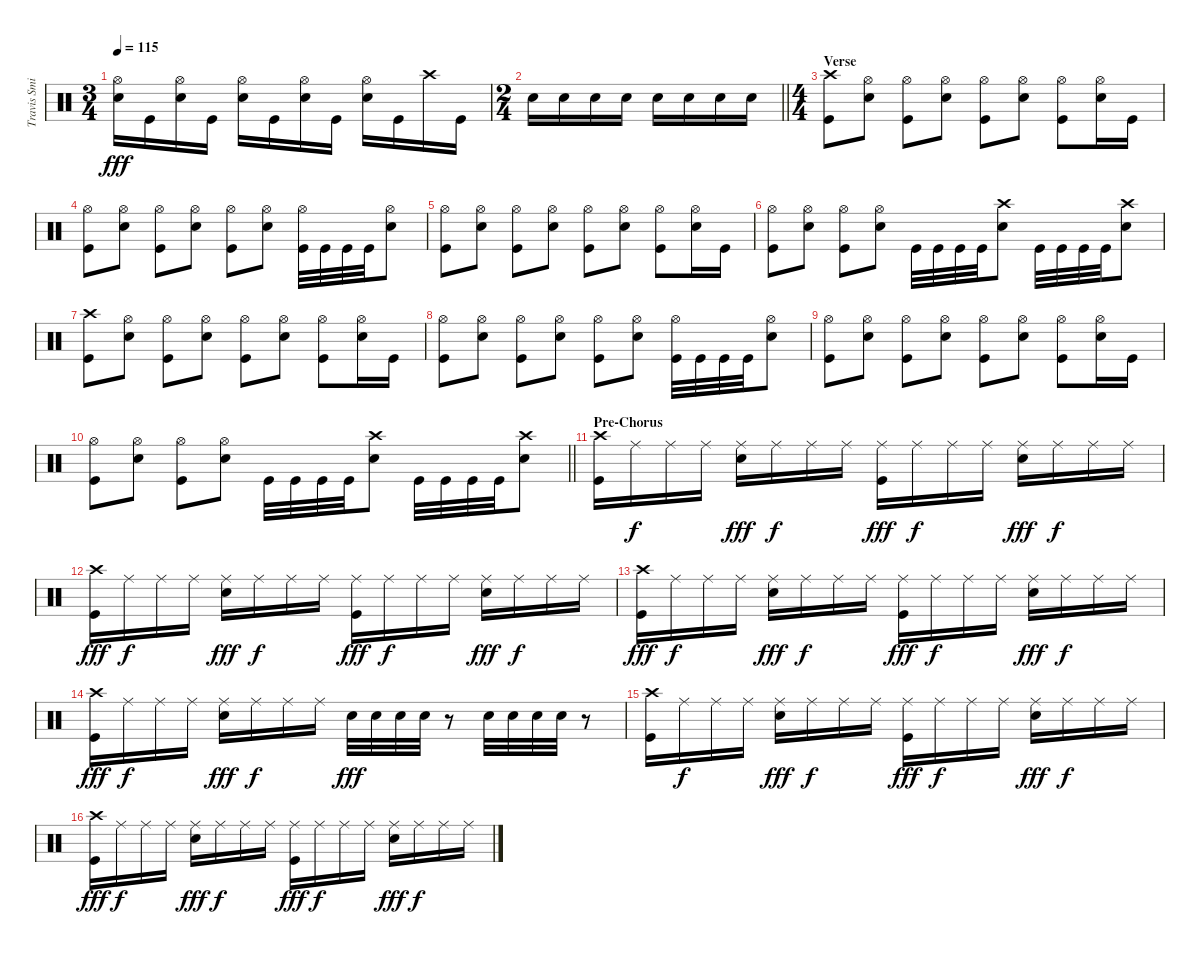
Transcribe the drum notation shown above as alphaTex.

\track ("Travis Smith" "Travis Smi") {instrument percussion}
\staff {score}
\articulation defaults
\ts (3 4)
\tempo 115
\clef neutral
\ks c
("Hi-Hat (open)" "Snare (hit) 2").16{dy fff} "Kick (hit)".16 ("Hi-Hat (open)" "Snare (hit) 2").16 "Kick (hit)".16 ("Hi-Hat (open)" "Snare (hit) 2").16 "Kick (hit)".16 ("Hi-Hat (open)" "Snare (hit) 2").16 "Kick (hit)".16 ("Hi-Hat (open)" "Snare (hit) 2").16 "Kick (hit)".16 "Crash high (hit)".16 "Kick (hit)".16 |
\ts (2 4)
\barLineRight lightlight "Snare (hit) 2".16 "Snare (hit) 2".16 "Snare (hit) 2".16 "Snare (hit) 2".16 "Snare (hit) 2".16 "Snare (hit) 2".16 "Snare (hit) 2".16 "Snare (hit) 2".16
|
\ts (4 4)
\section ("" "Verse")
("Crash high (hit)" "Kick (hit)").8 ("Hi-Hat (open)" "Snare (hit) 2").8 ("Hi-Hat (open)" "Kick (hit)").8 ("Hi-Hat (open)" "Snare (hit) 2").8 ("Hi-Hat (open)" "Kick (hit)").8 ("Hi-Hat (open)" "Snare (hit) 2").8 ("Hi-Hat (open)" "Kick (hit)").8 ("Hi-Hat (open)" "Snare (hit) 2").16 "Kick (hit)".16 |
("Hi-Hat (open)" "Kick (hit)").8 ("Hi-Hat (open)" "Snare (hit) 2").8 ("Hi-Hat (open)" "Kick (hit)").8 ("Hi-Hat (open)" "Snare (hit) 2").8 ("Hi-Hat (open)" "Kick (hit)").8 ("Hi-Hat (open)" "Snare (hit) 2").8 ("Hi-Hat (open)" "Kick (hit)").32 "Kick (hit)".32 "Kick (hit)".32 "Kick (hit)".32 ("Hi-Hat (open)" "Snare (hit) 2").8 |
("Hi-Hat (open)" "Kick (hit)").8 ("Hi-Hat (open)" "Snare (hit) 2").8 ("Hi-Hat (open)" "Kick (hit)").8 ("Hi-Hat (open)" "Snare (hit) 2").8 ("Hi-Hat (open)" "Kick (hit)").8 ("Hi-Hat (open)" "Snare (hit) 2").8 ("Hi-Hat (open)" "Kick (hit)").8 ("Hi-Hat (open)" "Snare (hit) 2").16 "Kick (hit)".16 |
("Hi-Hat (open)" "Kick (hit)").8 ("Hi-Hat (open)" "Snare (hit) 2").8 ("Hi-Hat (open)" "Kick (hit)").8 ("Hi-Hat (open)" "Snare (hit) 2").8 "Kick (hit)".32 "Kick (hit)".32 "Kick (hit)".32 "Kick (hit)".32 ("Crash high (hit)" "Snare (hit) 2").8 "Kick (hit)".32 "Kick (hit)".32 "Kick (hit)".32 "Kick (hit)".32 ("Crash high (hit)" "Snare (hit) 2").8 |
("Crash high (hit)" "Kick (hit)").8 ("Hi-Hat (open)" "Snare (hit) 2").8 ("Hi-Hat (open)" "Kick (hit)").8 ("Hi-Hat (open)" "Snare (hit) 2").8 ("Hi-Hat (open)" "Kick (hit)").8 ("Hi-Hat (open)" "Snare (hit) 2").8 ("Hi-Hat (open)" "Kick (hit)").8 ("Hi-Hat (open)" "Snare (hit) 2").16 "Kick (hit)".16 |
("Hi-Hat (open)" "Kick (hit)").8 ("Hi-Hat (open)" "Snare (hit) 2").8 ("Hi-Hat (open)" "Kick (hit)").8 ("Hi-Hat (open)" "Snare (hit) 2").8 ("Hi-Hat (open)" "Kick (hit)").8 ("Hi-Hat (open)" "Snare (hit) 2").8 ("Hi-Hat (open)" "Kick (hit)").32 "Kick (hit)".32 "Kick (hit)".32 "Kick (hit)".32 ("Hi-Hat (open)" "Snare (hit) 2").8 |
("Hi-Hat (open)" "Kick (hit)").8 ("Hi-Hat (open)" "Snare (hit) 2").8 ("Hi-Hat (open)" "Kick (hit)").8 ("Hi-Hat (open)" "Snare (hit) 2").8 ("Hi-Hat (open)" "Kick (hit)").8 ("Hi-Hat (open)" "Snare (hit) 2").8 ("Hi-Hat (open)" "Kick (hit)").8 ("Hi-Hat (open)" "Snare (hit) 2").16 "Kick (hit)".16 |
\barLineRight lightlight
("Hi-Hat (open)" "Kick (hit)").8 ("Hi-Hat (open)" "Snare (hit) 2").8 ("Hi-Hat (open)" "Kick (hit)").8 ("Hi-Hat (open)" "Snare (hit) 2").8 "Kick (hit)".32 "Kick (hit)".32 "Kick (hit)".32 "Kick (hit)".32 ("Crash high (hit)" "Snare (hit) 2").8 "Kick (hit)".32 "Kick (hit)".32 "Kick (hit)".32 "Kick (hit)".32 ("Crash high (hit)" "Snare (hit) 2").8 |
\section ("" "Pre-Chorus")
("Crash high (hit)" "Kick (hit)").16 "Ride (middle)".16{dy f} "Ride (middle)".16 "Ride (middle)".16 ("Ride (middle)" "Snare (hit) 2").16{dy fff} "Ride (middle)".16{dy f} "Ride (middle)".16 "Ride (middle)".16 ("Ride (middle)" "Kick (hit)").16{dy fff} "Ride (middle)".16{dy f} "Ride (middle)".16 "Ride (middle)".16 ("Ride (middle)" "Snare (hit) 2").16{dy fff} "Ride (middle)".16{dy f} "Ride (middle)".16 "Ride (middle)".16 |
("Crash high (hit)" "Kick (hit)").16{dy fff} "Ride (middle)".16{dy f} "Ride (middle)".16 "Ride (middle)".16 ("Ride (middle)" "Snare (hit) 2").16{dy fff} "Ride (middle)".16{dy f} "Ride (middle)".16 "Ride (middle)".16 ("Ride (middle)" "Kick (hit)").16{dy fff} "Ride (middle)".16{dy f} "Ride (middle)".16 "Ride (middle)".16 ("Ride (middle)" "Snare (hit) 2").16{dy fff} "Ride (middle)".16{dy f} "Ride (middle)".16 "Ride (middle)".16 |
("Crash high (hit)" "Kick (hit)").16{dy fff} "Ride (middle)".16{dy f} "Ride (middle)".16 "Ride (middle)".16 ("Ride (middle)" "Snare (hit) 2").16{dy fff} "Ride (middle)".16{dy f} "Ride (middle)".16 "Ride (middle)".16 ("Ride (middle)" "Kick (hit)").16{dy fff} "Ride (middle)".16{dy f} "Ride (middle)".16 "Ride (middle)".16 ("Ride (middle)" "Snare (hit) 2").16{dy fff} "Ride (middle)".16{dy f} "Ride (middle)".16 "Ride (middle)".16 |
("Crash high (hit)" "Kick (hit)").16{dy fff} "Ride (middle)".16{dy f} "Ride (middle)".16 "Ride (middle)".16 ("Ride (middle)" "Snare (hit) 2").16{dy fff} "Ride (middle)".16{dy f} "Ride (middle)".16 "Ride (middle)".16 "Snare (hit) 2".32{dy fff} "Snare (hit) 2".32 "Snare (hit) 2".32 "Snare (hit) 2".32 r.8 "Snare (hit) 2".32 "Snare (hit) 2".32 "Snare (hit) 2".32 "Snare (hit) 2".32 r.8 |
("Crash high (hit)" "Kick (hit)").16 "Ride (middle)".16{dy f} "Ride (middle)".16 "Ride (middle)".16 ("Ride (middle)" "Snare (hit) 2").16{dy fff} "Ride (middle)".16{dy f} "Ride (middle)".16 "Ride (middle)".16 ("Ride (middle)" "Kick (hit)").16{dy fff} "Ride (middle)".16{dy f} "Ride (middle)".16 "Ride (middle)".16 ("Ride (middle)" "Snare (hit) 2").16{dy fff} "Ride (middle)".16{dy f} "Ride (middle)".16 "Ride (middle)".16 |
("Crash high (hit)" "Kick (hit)").16{dy fff} "Ride (middle)".16{dy f} "Ride (middle)".16 "Ride (middle)".16 ("Ride (middle)" "Snare (hit) 2").16{dy fff} "Ride (middle)".16{dy f} "Ride (middle)".16 "Ride (middle)".16 ("Ride (middle)" "Kick (hit)").16{dy fff} "Ride (middle)".16{dy f} "Ride (middle)".16 "Ride (middle)".16 ("Ride (middle)" "Snare (hit) 2").16{dy fff} "Ride (middle)".16{dy f} "Ride (middle)".16 "Ride (middle)".16
